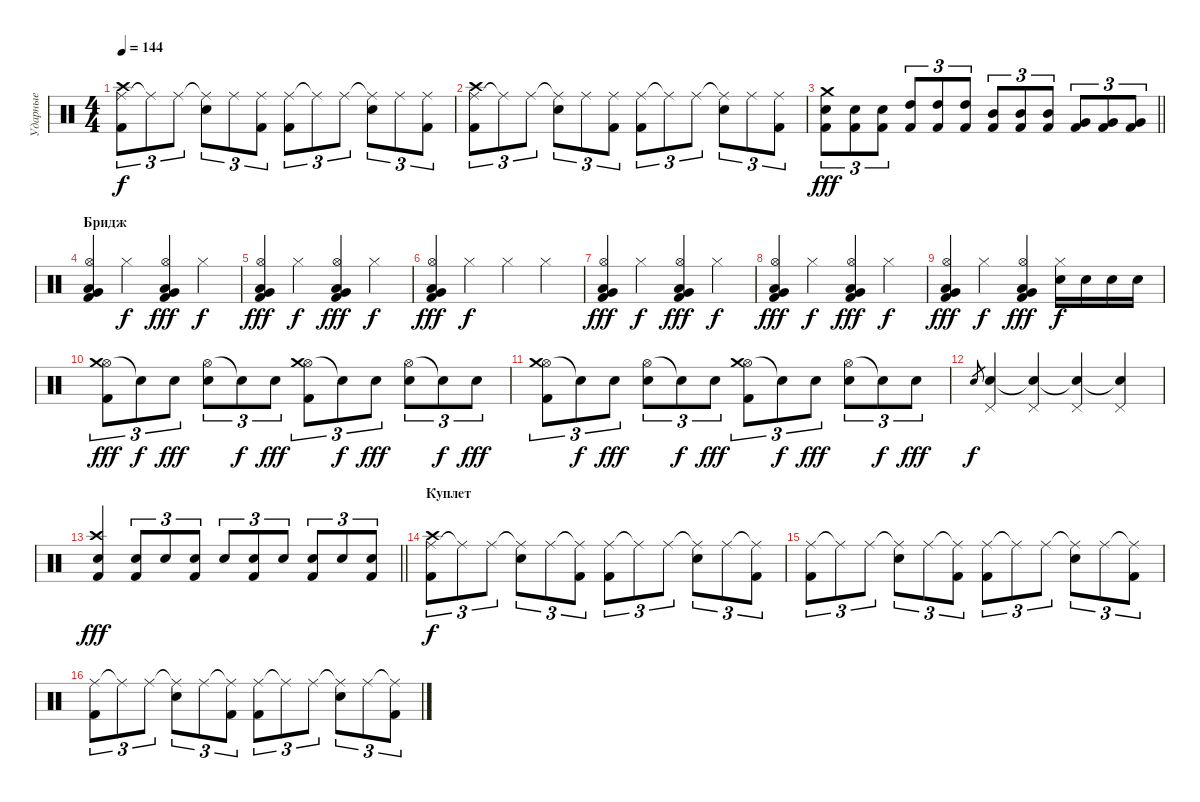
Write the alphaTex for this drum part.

\track ("Ударные" "Ударные") {instrument percussion}
\staff {score}
\articulation defaults
\ts (4 4)
\tempo 144
\clef neutral
\ks c
("Ride (middle)" "Kick (hit) 2" "Crash high (hit)").8{tu (3 2) dy f} "Ride (middle)"{t}.8{tu (3 2)} "Ride (middle)".8{tu (3 2)} ("Ride (middle)"{t} "Snare (hit) 2").8{tu (3 2)} "Ride (middle)".8{tu (3 2)} ("Ride (middle)" "Kick (hit) 2").8{tu (3 2)} ("Ride (middle)" "Kick (hit) 2").8{tu (3 2)} "Ride (middle)"{t}.8{tu (3 2)} "Ride (middle)".8{tu (3 2)} ("Ride (middle)"{t} "Snare (hit) 2").8{tu (3 2)} "Ride (middle)".8{tu (3 2)} ("Ride (middle)" "Kick (hit) 2").8{tu (3 2)} |
("Ride (middle)" "Kick (hit) 2" "Crash high (hit)").8{tu (3 2)} "Ride (middle)"{t}.8{tu (3 2)} "Ride (middle)".8{tu (3 2)} ("Ride (middle)"{t} "Snare (hit) 2").8{tu (3 2)} "Ride (middle)".8{tu (3 2)} ("Ride (middle)" "Kick (hit) 2").8{tu (3 2)} ("Ride (middle)" "Kick (hit) 2").8{tu (3 2)} "Ride (middle)"{t}.8{tu (3 2)} "Ride (middle)".8{tu (3 2)} ("Ride (middle)"{t} "Snare (hit) 2").8{tu (3 2)} "Ride (middle)".8{tu (3 2)} ("Ride (middle)" "Kick (hit) 2").8{tu (3 2)} |
\barLineRight lightlight
("Snare (hit) 2" "Crash medium (hit)" "Kick (hit) 2").8{tu (3 2) dy fff} ("Snare (hit) 2" "Kick (hit) 2").8{tu (3 2)} ("Snare (hit) 2" "Kick (hit) 2").8{tu (3 2)} ("High Tom (hit)" "Kick (hit) 2").8{tu (3 2)} ("High Tom (hit)" "Kick (hit) 2").8{tu (3 2)} ("High Tom (hit)" "Kick (hit) 2").8{tu (3 2)} ("Mid Tom (hit)" "Kick (hit) 2").8{tu (3 2)} ("Mid Tom (hit)" "Kick (hit) 2").8{tu (3 2)} ("Mid Tom (hit)" "Kick (hit) 2").8{tu (3 2)} ("Very Low Tom (hit)" "Kick (hit) 2").8{tu (3 2)} ("Very Low Tom (hit)" "Kick (hit) 2").8{tu (3 2)} ("Very Low Tom (hit)" "Kick (hit) 2").8{tu (3 2)} |
\section ("" "Бридж")
("Very Low Tom (hit)" "Hi-Hat (open)" "Low Floor Tom (hit)" "Kick (hit) 2").4 "Hi-Hat (closed)".4{dy f} ("Very Low Tom (hit)" "Hi-Hat (open)" "Low Floor Tom (hit)" "Kick (hit) 2").4{dy fff} "Hi-Hat (closed)".4{dy f} |
("Very Low Tom (hit)" "Hi-Hat (open)" "Low Floor Tom (hit)" "Kick (hit) 2").4{dy fff} "Hi-Hat (closed)".4{dy f} ("Very Low Tom (hit)" "Hi-Hat (open)" "Low Floor Tom (hit)" "Kick (hit) 2").4{dy fff} "Hi-Hat (closed)".4{dy f} |
("Very Low Tom (hit)" "Hi-Hat (open)" "Low Floor Tom (hit)" "Kick (hit) 2").4{dy fff} "Hi-Hat (closed)".4{dy f} "Hi-Hat (closed)".4 "Hi-Hat (closed)".4 |
("Very Low Tom (hit)" "Hi-Hat (open)" "Low Floor Tom (hit)" "Kick (hit) 2").4{dy fff} "Hi-Hat (closed)".4{dy f} ("Very Low Tom (hit)" "Hi-Hat (open)" "Low Floor Tom (hit)" "Kick (hit) 2").4{dy fff} "Hi-Hat (closed)".4{dy f} |
("Very Low Tom (hit)" "Hi-Hat (open)" "Low Floor Tom (hit)" "Kick (hit) 2").4{dy fff} "Hi-Hat (closed)".4{dy f} ("Very Low Tom (hit)" "Hi-Hat (open)" "Low Floor Tom (hit)" "Kick (hit) 2").4{dy fff} "Hi-Hat (closed)".4{dy f} |
("Very Low Tom (hit)" "Hi-Hat (open)" "Low Floor Tom (hit)" "Kick (hit) 2").4{dy fff} "Hi-Hat (closed)".4{dy f} ("Very Low Tom (hit)" "Hi-Hat (open)" "Low Floor Tom (hit)" "Kick (hit) 2").4{dy fff} ("Hi-Hat (closed)" "Snare (hit) 2").16{dy f} "Snare (hit) 2".16 "Snare (hit) 2".16 "Snare (hit) 2".16 |
("Hi-Hat (open)" "Kick (hit) 2" "Crash medium (hit)").8{tu (3 2) dy fff} "Snare (hit)"{t}.8{tu (3 2) dy f} "Snare (hit) 2".8{tu (3 2) dy fff} ("Hi-Hat (open)" "Snare (hit) 2").8{tu (3 2)} "Snare (hit)"{t}.8{tu (3 2) dy f} "Snare (hit) 2".8{tu (3 2) dy fff} ("Hi-Hat (open)" "Kick (hit) 2" "Crash medium (hit)").8{tu (3 2)} "Snare (hit)"{t}.8{tu (3 2) dy f} "Snare (hit) 2".8{tu (3 2) dy fff} ("Hi-Hat (open)" "Snare (hit) 2").8{tu (3 2)} "Snare (hit)"{t}.8{tu (3 2) dy f} "Snare (hit) 2".8{tu (3 2) dy fff} |
("Hi-Hat (open)" "Kick (hit) 2" "Crash medium (hit)").8{tu (3 2)} "Snare (hit)"{t}.8{tu (3 2) dy f} "Snare (hit) 2".8{tu (3 2) dy fff} ("Hi-Hat (open)" "Snare (hit) 2").8{tu (3 2)} "Snare (hit)"{t}.8{tu (3 2) dy f} "Snare (hit) 2".8{tu (3 2) dy fff} ("Hi-Hat (open)" "Kick (hit) 2" "Crash medium (hit)").8{tu (3 2)} "Snare (hit)"{t}.8{tu (3 2) dy f} "Snare (hit) 2".8{tu (3 2) dy fff} ("Hi-Hat (open)" "Snare (hit) 2").8{tu (3 2)} "Snare (hit)"{t}.8{tu (3 2) dy f} "Snare (hit) 2".8{tu (3 2) dy fff} |
"Snare (hit) 2".8{gr dy f} ("Snare (hit) 2" "Pedal Hi-Hat (hit)").4 ("Snare (hit)"{t} "Pedal Hi-Hat (hit)").4 ("Snare (hit)"{t} "Pedal Hi-Hat (hit)").4 ("Snare (hit)"{t} "Pedal Hi-Hat (hit)").4 |
\barLineRight lightlight
("Crash high (hit)" "Snare (hit) 2" "Kick (hit) 2").4{dy fff} ("Snare (hit) 2" "Kick (hit) 2").8{tu (3 2)} "Snare (hit) 2".8{tu (3 2)} ("Snare (hit) 2" "Kick (hit) 2").8{tu (3 2)} "Snare (hit) 2".8{tu (3 2)} ("Snare (hit) 2" "Kick (hit) 2").8{tu (3 2)} "Snare (hit) 2".8{tu (3 2)} ("Snare (hit) 2" "Kick (hit) 2").8{tu (3 2)} "Snare (hit) 2".8{tu (3 2)} ("Snare (hit) 2" "Kick (hit) 2").8{tu (3 2)} |
\section ("" "Куплет")
("Ride (middle)" "Kick (hit) 2" "Crash high (hit)").8{tu (3 2) dy f} "Ride (middle)"{t}.8{tu (3 2)} "Ride (middle)".8{tu (3 2)} ("Ride (middle)"{t} "Snare (hit) 2").8{tu (3 2)} "Ride (middle)".8{tu (3 2)} ("Ride (middle)"{t} "Kick (hit) 2").8{tu (3 2)} ("Ride (middle)" "Kick (hit) 2").8{tu (3 2)} "Ride (middle)"{t}.8{tu (3 2)} "Ride (middle)".8{tu (3 2)} ("Ride (middle)"{t} "Snare (hit) 2").8{tu (3 2)} "Ride (middle)".8{tu (3 2)} ("Ride (middle)"{t} "Kick (hit) 2").8{tu (3 2)} |
("Ride (middle)" "Kick (hit) 2").8{tu (3 2)} "Ride (middle)"{t}.8{tu (3 2)} "Ride (middle)".8{tu (3 2)} ("Ride (middle)"{t} "Snare (hit) 2").8{tu (3 2)} "Ride (middle)".8{tu (3 2)} ("Ride (middle)"{t} "Kick (hit) 2").8{tu (3 2)} ("Ride (middle)" "Kick (hit) 2").8{tu (3 2)} "Ride (middle)"{t}.8{tu (3 2)} "Ride (middle)".8{tu (3 2)} ("Ride (middle)"{t} "Snare (hit) 2").8{tu (3 2)} "Ride (middle)".8{tu (3 2)} ("Ride (middle)"{t} "Kick (hit) 2").8{tu (3 2)} |
("Ride (middle)" "Kick (hit) 2").8{tu (3 2)} "Ride (middle)"{t}.8{tu (3 2)} "Ride (middle)".8{tu (3 2)} ("Ride (middle)"{t} "Snare (hit) 2").8{tu (3 2)} "Ride (middle)".8{tu (3 2)} ("Ride (middle)"{t} "Kick (hit) 2").8{tu (3 2)} ("Ride (middle)" "Kick (hit) 2").8{tu (3 2)} "Ride (middle)"{t}.8{tu (3 2)} "Ride (middle)".8{tu (3 2)} ("Ride (middle)"{t} "Snare (hit) 2").8{tu (3 2)} "Ride (middle)".8{tu (3 2)} ("Ride (middle)"{t} "Kick (hit) 2").8{tu (3 2)}
